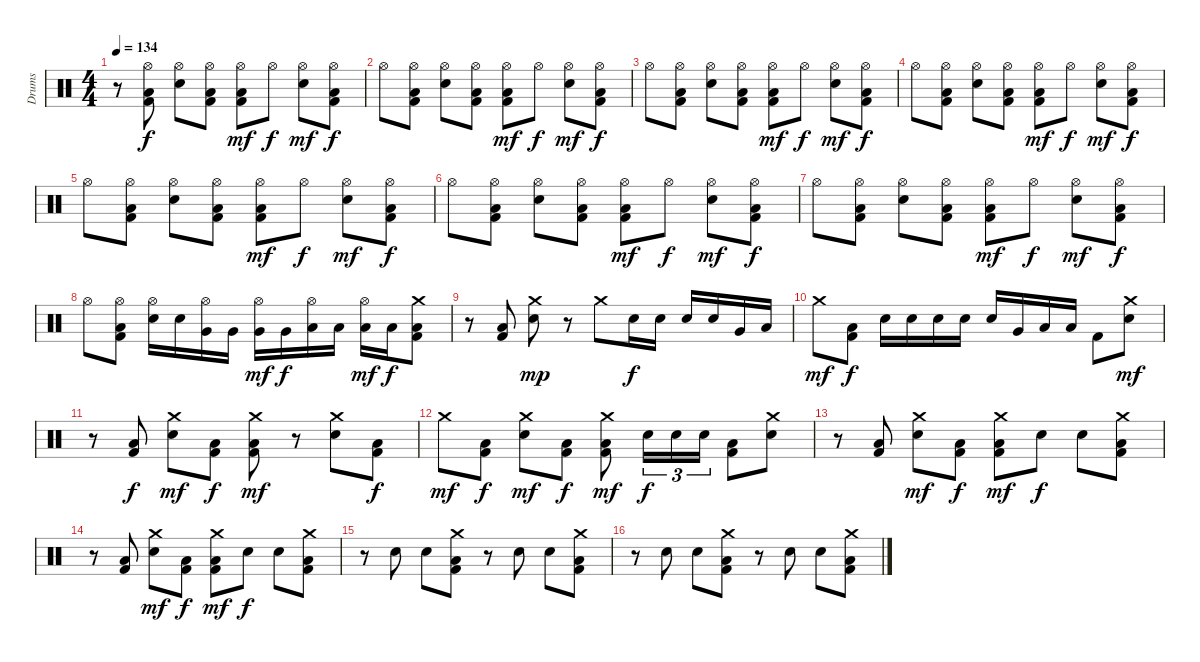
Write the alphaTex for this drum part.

\track ("Drums" "Drums") {instrument percussion}
\staff {score}
\articulation defaults
\ts (4 4)
\tempo 134
\clef neutral
\ks c
r.8{dy f} ("Hi-Hat (open)" "Kick (hit) 2" "Low Floor Tom (hit)").8 ("Hi-Hat (open)" "Snare (hit) 2").8 ("Hi-Hat (open)" "Kick (hit) 2" "Low Floor Tom (hit)").8 ("Hi-Hat (open)" "Kick (hit) 2" "Low Floor Tom (hit)").8{dy mf} "Hi-Hat (open)".8{dy f} ("Hi-Hat (open)" "Snare (hit) 2").8{dy mf} ("Hi-Hat (open)" "Kick (hit) 2" "Low Floor Tom (hit)").8{dy f} |
"Hi-Hat (open)".8 ("Hi-Hat (open)" "Kick (hit) 2" "Low Floor Tom (hit)").8 ("Hi-Hat (open)" "Snare (hit) 2").8 ("Hi-Hat (open)" "Kick (hit) 2" "Low Floor Tom (hit)").8 ("Hi-Hat (open)" "Kick (hit) 2" "Low Floor Tom (hit)").8{dy mf} "Hi-Hat (open)".8{dy f} ("Hi-Hat (open)" "Snare (hit) 2").8{dy mf} ("Hi-Hat (open)" "Kick (hit) 2" "Low Floor Tom (hit)").8{dy f} |
"Hi-Hat (open)".8 ("Hi-Hat (open)" "Kick (hit) 2" "Low Floor Tom (hit)").8 ("Hi-Hat (open)" "Snare (hit) 2").8 ("Hi-Hat (open)" "Kick (hit) 2" "Low Floor Tom (hit)").8 ("Hi-Hat (open)" "Kick (hit) 2" "Low Floor Tom (hit)").8{dy mf} "Hi-Hat (open)".8{dy f} ("Hi-Hat (open)" "Snare (hit) 2").8{dy mf} ("Hi-Hat (open)" "Kick (hit) 2" "Low Floor Tom (hit)").8{dy f} |
"Hi-Hat (open)".8 ("Hi-Hat (open)" "Kick (hit) 2" "Low Floor Tom (hit)").8 ("Hi-Hat (open)" "Snare (hit) 2").8 ("Hi-Hat (open)" "Kick (hit) 2" "Low Floor Tom (hit)").8 ("Hi-Hat (open)" "Kick (hit) 2" "Low Floor Tom (hit)").8{dy mf} "Hi-Hat (open)".8{dy f} ("Hi-Hat (open)" "Snare (hit) 2").8{dy mf} ("Hi-Hat (open)" "Kick (hit) 2" "Low Floor Tom (hit)").8{dy f} |
"Hi-Hat (open)".8 ("Hi-Hat (open)" "Kick (hit) 2" "Low Floor Tom (hit)").8 ("Hi-Hat (open)" "Snare (hit) 2").8 ("Hi-Hat (open)" "Kick (hit) 2" "Low Floor Tom (hit)").8 ("Hi-Hat (open)" "Kick (hit) 2" "Low Floor Tom (hit)").8{dy mf} "Hi-Hat (open)".8{dy f} ("Hi-Hat (open)" "Snare (hit) 2").8{dy mf} ("Hi-Hat (open)" "Kick (hit) 2" "Low Floor Tom (hit)").8{dy f} |
"Hi-Hat (open)".8 ("Hi-Hat (open)" "Kick (hit) 2" "Low Floor Tom (hit)").8 ("Hi-Hat (open)" "Snare (hit) 2").8 ("Hi-Hat (open)" "Kick (hit) 2" "Low Floor Tom (hit)").8 ("Hi-Hat (open)" "Kick (hit) 2" "Low Floor Tom (hit)").8{dy mf} "Hi-Hat (open)".8{dy f} ("Hi-Hat (open)" "Snare (hit) 2").8{dy mf} ("Hi-Hat (open)" "Kick (hit) 2" "Low Floor Tom (hit)").8{dy f} |
"Hi-Hat (open)".8 ("Hi-Hat (open)" "Kick (hit) 2" "Low Floor Tom (hit)").8 ("Hi-Hat (open)" "Snare (hit) 2").8 ("Hi-Hat (open)" "Kick (hit) 2" "Low Floor Tom (hit)").8 ("Hi-Hat (open)" "Kick (hit) 2" "Low Floor Tom (hit)").8{dy mf} "Hi-Hat (open)".8{dy f} ("Hi-Hat (open)" "Snare (hit) 2").8{dy mf} ("Hi-Hat (open)" "Kick (hit) 2" "Low Floor Tom (hit)").8{dy f} |
"Hi-Hat (open)".8 ("Hi-Hat (open)" "Kick (hit) 2" "Low Floor Tom (hit)").8 ("Hi-Hat (open)" "Snare (hit) 2").16 "Snare (hit) 2".16 ("Hi-Hat (open)" "Very Low Tom (hit)").16 "Very Low Tom (hit)".16 ("Hi-Hat (open)" "Very Low Tom (hit)").16{dy mf} "Very Low Tom (hit)".16{dy f} ("Hi-Hat (open)" "Low Floor Tom (hit)").16 "Low Floor Tom (hit)".16 ("Hi-Hat (open)" "Low Floor Tom (hit)").16{dy mf} "Low Floor Tom (hit)".16{dy f} ("Crash medium (hit)" "Kick (hit) 2" "Low Floor Tom (hit)").8 |
r.8 ("Kick (hit) 2" "Low Floor Tom (hit)").8 ("Crash medium (hit)" "Snare (hit) 2").8{dy mp} r.8 "Crash medium (hit)".8 "Snare (hit) 2".16{dy f} "Snare (hit) 2".16 "Snare (hit) 2".16 "Snare (hit) 2".16 "Very Low Tom (hit)".16 "Low Floor Tom (hit)".16 |
"Crash medium (hit)".8{dy mf} ("Kick (hit) 2" "Low Floor Tom (hit)").8{dy f} "Snare (hit) 2".16 "Snare (hit) 2".16 "Snare (hit) 2".16 "Snare (hit) 2".16 "Snare (hit) 2".16 "Very Low Tom (hit)".16 "Low Floor Tom (hit)".16 "Low Floor Tom (hit)".16 "Kick (hit) 2".8 ("Crash medium (hit)" "Snare (hit) 2").8{dy mf} |
r.8 ("Kick (hit) 2" "Low Floor Tom (hit)").8{dy f} ("Crash medium (hit)" "Snare (hit) 2").8{dy mf} ("Kick (hit) 2" "Low Floor Tom (hit)").8{dy f} ("Crash medium (hit)" "Kick (hit) 2" "Low Floor Tom (hit)").8{dy mf} r.8 ("Crash medium (hit)" "Snare (hit) 2").8 ("Kick (hit) 2" "Low Floor Tom (hit)").8{dy f} |
"Crash medium (hit)".8{dy mf} ("Kick (hit) 2" "Low Floor Tom (hit)").8{dy f} ("Crash medium (hit)" "Snare (hit) 2").8{dy mf} ("Kick (hit) 2" "Low Floor Tom (hit)").8{dy f} ("Crash medium (hit)" "Kick (hit) 2" "Low Floor Tom (hit)").8{dy mf} "Snare (hit) 2".16{tu (3 2) dy f} "Snare (hit) 2".16{tu (3 2)} "Snare (hit) 2".16{tu (3 2)} ("Kick (hit) 2" "Low Floor Tom (hit)").8 ("Crash medium (hit)" "Snare (hit) 2").8 |
r.8 ("Kick (hit) 2" "Low Floor Tom (hit)").8 ("Crash medium (hit)" "Snare (hit) 2").8{dy mf} ("Kick (hit) 2" "Low Floor Tom (hit)").8{dy f} ("Crash medium (hit)" "Kick (hit) 2" "Low Floor Tom (hit)").8{dy mf} "Snare (hit) 2".8{dy f} "Snare (hit) 2".8 ("Crash medium (hit)" "Kick (hit) 2" "Low Floor Tom (hit)").8 |
r.8 ("Kick (hit) 2" "Low Floor Tom (hit)").8 ("Crash medium (hit)" "Snare (hit) 2").8{dy mf} ("Kick (hit) 2" "Low Floor Tom (hit)").8{dy f} ("Crash medium (hit)" "Kick (hit) 2" "Low Floor Tom (hit)").8{dy mf} "Snare (hit) 2".8{dy f} "Snare (hit) 2".8 ("Crash medium (hit)" "Kick (hit) 2" "Low Floor Tom (hit)").8 |
r.8 "Snare (hit) 2".8 "Snare (hit) 2".8 ("Crash medium (hit)" "Kick (hit) 2" "Low Floor Tom (hit)").8 r.8 "Snare (hit) 2".8 "Snare (hit) 2".8 ("Crash medium (hit)" "Kick (hit) 2" "Low Floor Tom (hit)").8 |
r.8 "Snare (hit) 2".8 "Snare (hit) 2".8 ("Crash medium (hit)" "Kick (hit) 2" "Low Floor Tom (hit)").8 r.8 "Snare (hit) 2".8 "Snare (hit) 2".8 ("Crash medium (hit)" "Kick (hit) 2" "Low Floor Tom (hit)").8
